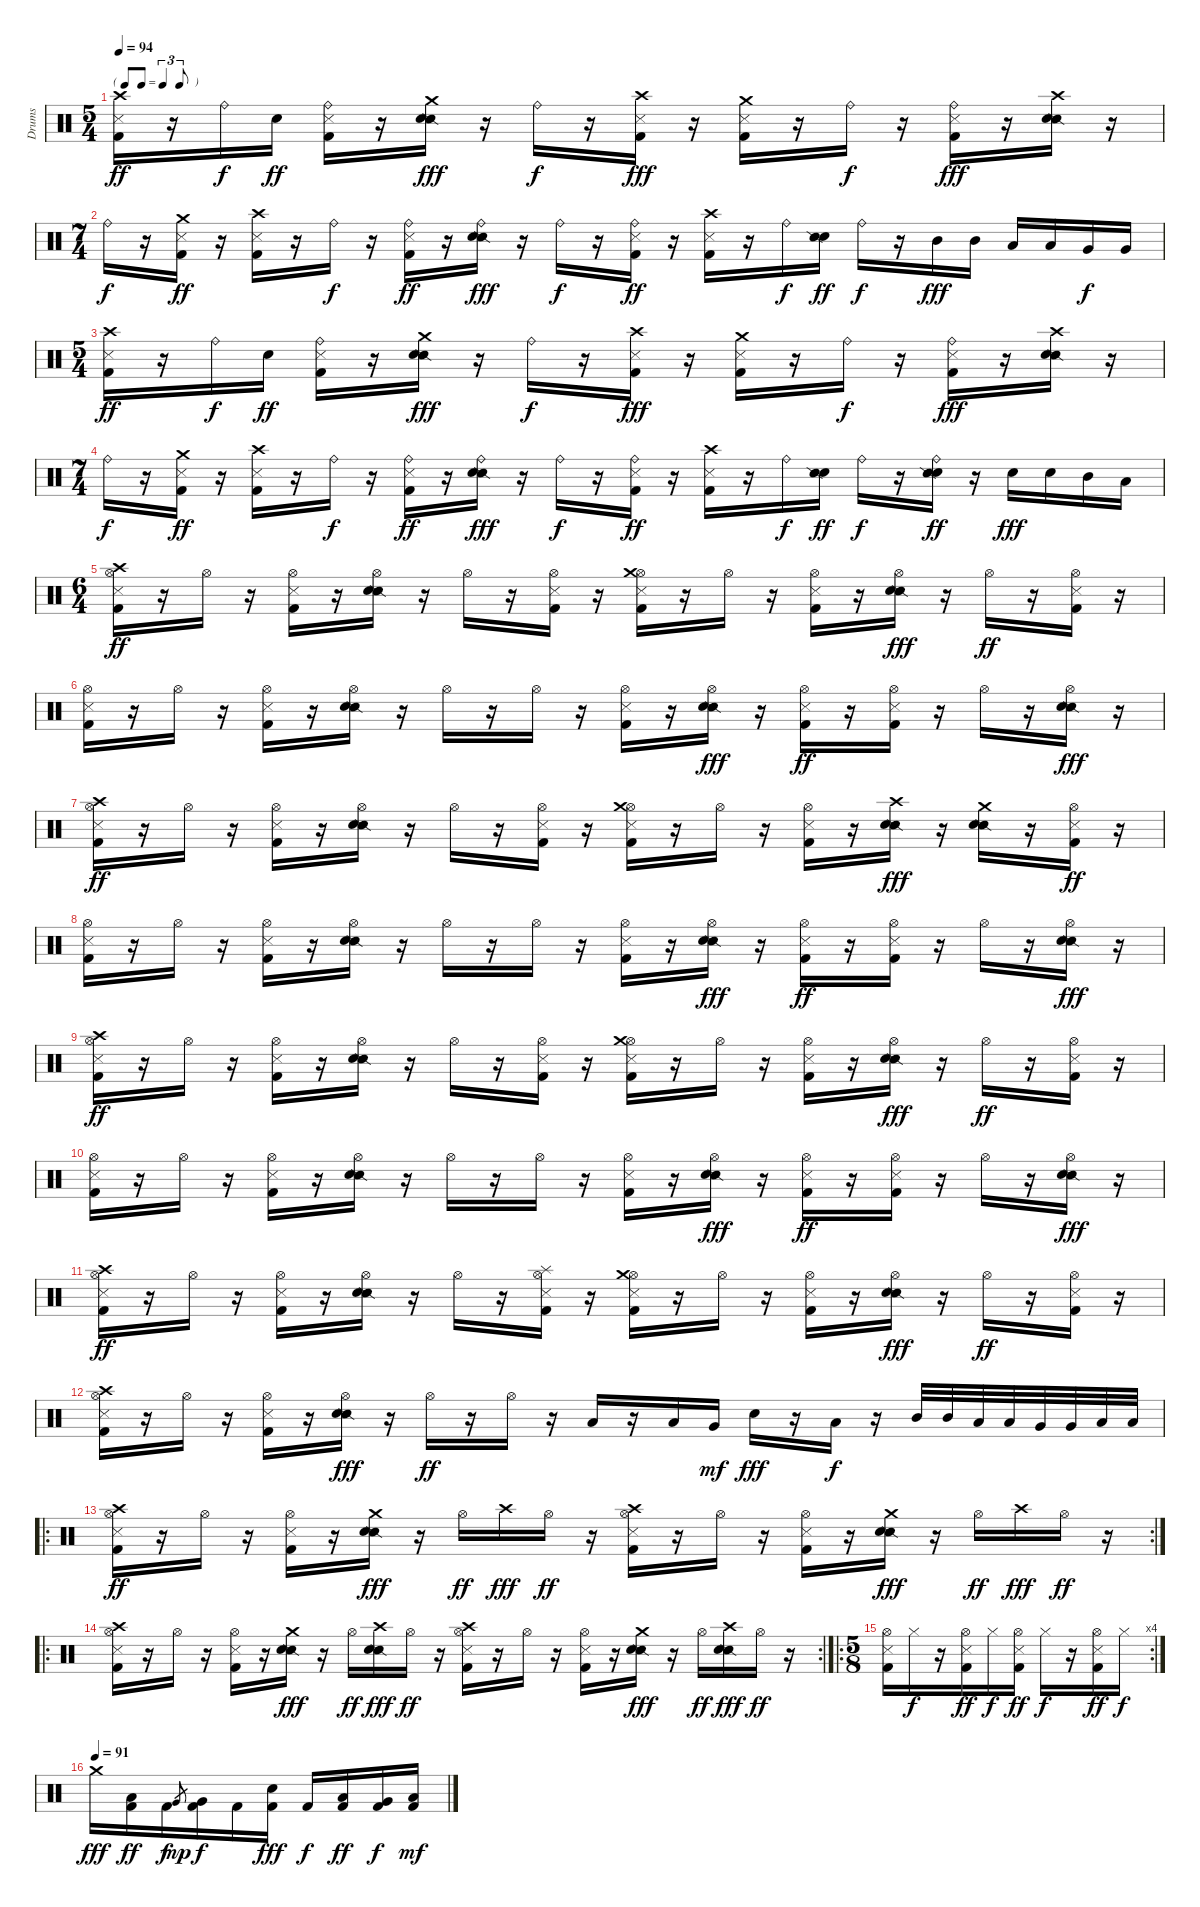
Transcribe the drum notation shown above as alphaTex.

\track ("Drums" "Drums") {instrument percussion}
\staff {score}
\articulation defaults
\ts (5 4)
\tf triplet8th
\tempo 94
\clef neutral
\ks c
("Crash high (hit)" "Metronome (hit)" "Kick (hit) 2").16{dy ff} r.16 "Ride (bell)".16{dy f} "Electric Snare (hit)".16{dy ff} ("Ride (bell)" "Metronome (hit)" "Kick (hit) 2").16 r.16 ("Crash medium (hit)" "Snare (side stick) 2" "Electric Snare (hit)").16{dy fff} r.16 "Ride (bell)".16{dy f} r.16 ("Crash high (hit)" "Metronome (hit)" "Kick (hit) 2").16{dy fff} r.16 ("Crash medium (hit)" "Metronome (hit)" "Kick (hit) 2").16 r.16 "Ride (bell)".16{dy f} r.16 ("Ride (bell)" "Metronome (hit)" "Kick (hit) 2").16{dy fff} r.16 ("Crash high (hit)" "Snare (side stick) 2" "Electric Snare (hit)").16 r.16 |
\ts (7 4)
"Ride (bell)".16{dy f} r.16 ("Crash medium (hit)" "Metronome (hit)" "Kick (hit) 2").16{dy ff} r.16 ("Crash high (hit)" "Metronome (hit)" "Kick (hit) 2").16 r.16 "Ride (bell)".16{dy f} r.16 ("Ride (bell)" "Metronome (hit)" "Kick (hit) 2").16{dy ff} r.16 ("Ride (bell)" "Snare (side stick) 2" "Electric Snare (hit)").16{dy fff} r.16 "Ride (bell)".16{dy f} r.16 ("Ride (bell)" "Metronome (hit)" "Kick (hit) 2").16{dy ff} r.16 ("Crash high (hit)" "Metronome (hit)" "Kick (hit) 2").16 r.16 "Ride (bell)".16{dy f} ("Electric Snare (hit)" "Snare (side stick) 2").16{dy ff} "Ride (bell)".16{dy f} r.16 "Mid Tom (hit)".16{dy fff} "Mid Tom (hit)".16 "Low Tom (hit)".16 "Low Tom (hit)".16 "Very Low Tom (hit)".16{dy f} "Very Low Tom (hit)".16 |
\ts (5 4)
("Crash high (hit)" "Metronome (hit)" "Kick (hit) 2").16{dy ff} r.16 "Ride (bell)".16{dy f} "Electric Snare (hit)".16{dy ff} ("Ride (bell)" "Metronome (hit)" "Kick (hit) 2").16 r.16 ("Crash medium (hit)" "Snare (side stick) 2" "Electric Snare (hit)").16{dy fff} r.16 "Ride (bell)".16{dy f} r.16 ("Crash high (hit)" "Metronome (hit)" "Kick (hit) 2").16{dy fff} r.16 ("Crash medium (hit)" "Metronome (hit)" "Kick (hit) 2").16 r.16 "Ride (bell)".16{dy f} r.16 ("Ride (bell)" "Metronome (hit)" "Kick (hit) 2").16{dy fff} r.16 ("Crash high (hit)" "Snare (side stick) 2" "Electric Snare (hit)").16 r.16 |
\ts (7 4)
"Ride (bell)".16{dy f} r.16 ("Crash medium (hit)" "Metronome (hit)" "Kick (hit) 2").16{dy ff} r.16 ("Crash high (hit)" "Metronome (hit)" "Kick (hit) 2").16 r.16 "Ride (bell)".16{dy f} r.16 ("Ride (bell)" "Metronome (hit)" "Kick (hit) 2").16{dy ff} r.16 ("Ride (bell)" "Snare (side stick) 2" "Electric Snare (hit)").16{dy fff} r.16 "Ride (bell)".16{dy f} r.16 ("Ride (bell)" "Metronome (hit)" "Kick (hit) 2").16{dy ff} r.16 ("Crash high (hit)" "Metronome (hit)" "Kick (hit) 2").16 r.16 "Ride (bell)".16{dy f} ("Electric Snare (hit)" "Snare (side stick) 2").16{dy ff} "Ride (bell)".16{dy f} r.16 ("Ride (bell)" "Electric Snare (hit)" "Snare (side stick) 2").16{dy ff} r.16 "Electric Snare (hit)".16{dy fff} "Electric Snare (hit)".16 "Mid Tom (hit)".16 "Low Tom (hit)".16 |
\ts (6 4)
("Hi-Hat (open)" "Crash high (hit)" "Metronome (hit)" "Kick (hit) 2").16{dy ff} r.16 "Hi-Hat (open)".16 r.16 ("Hi-Hat (open)" "Metronome (hit)" "Kick (hit) 2").16 r.16 ("Hi-Hat (open)" "Snare (side stick) 2" "Electric Snare (hit)").16 r.16 "Hi-Hat (open)".16 r.16 ("Hi-Hat (open)" "Metronome (hit)" "Kick (hit) 2").16 r.16 ("Hi-Hat (open)" "Crash medium (hit)" "Metronome (hit)" "Kick (hit) 2").16 r.16 "Hi-Hat (open)".16 r.16 ("Hi-Hat (open)" "Metronome (hit)" "Kick (hit) 2").16 r.16 ("Hi-Hat (open)" "Snare (side stick) 2" "Electric Snare (hit)").16{dy fff} r.16 "Hi-Hat (open)".16{dy ff} r.16 ("Hi-Hat (open)" "Metronome (hit)" "Kick (hit) 2").16 r.16 |
("Hi-Hat (open)" "Metronome (hit)" "Kick (hit) 2").16 r.16 "Hi-Hat (open)".16 r.16 ("Hi-Hat (open)" "Metronome (hit)" "Kick (hit) 2").16 r.16 ("Hi-Hat (open)" "Snare (side stick) 2" "Electric Snare (hit)").16 r.16 "Hi-Hat (open)".16 r.16 "Hi-Hat (open)".16 r.16 ("Hi-Hat (open)" "Metronome (hit)" "Kick (hit) 2").16 r.16 ("Hi-Hat (open)" "Snare (side stick) 2" "Electric Snare (hit)").16{dy fff} r.16 ("Hi-Hat (open)" "Metronome (hit)" "Kick (hit) 2").16{dy ff} r.16 ("Hi-Hat (open)" "Metronome (hit)" "Kick (hit) 2").16 r.16 "Hi-Hat (open)".16 r.16 ("Hi-Hat (open)" "Snare (side stick) 2" "Electric Snare (hit)").16{dy fff} r.16 |
("Hi-Hat (open)" "Crash high (hit)" "Metronome (hit)" "Kick (hit) 2").16{dy ff} r.16 "Hi-Hat (open)".16 r.16 ("Hi-Hat (open)" "Metronome (hit)" "Kick (hit) 2").16 r.16 ("Hi-Hat (open)" "Snare (side stick) 2" "Electric Snare (hit)").16 r.16 "Hi-Hat (open)".16 r.16 ("Hi-Hat (open)" "Metronome (hit)" "Kick (hit) 2").16 r.16 ("Hi-Hat (open)" "Crash medium (hit)" "Metronome (hit)" "Kick (hit) 2").16 r.16 "Hi-Hat (open)".16 r.16 ("Hi-Hat (open)" "Metronome (hit)" "Kick (hit) 2").16 r.16 ("Crash high (hit)" "Snare (side stick) 2" "Electric Snare (hit)").16{dy fff} r.16 ("Crash medium (hit)" "Snare (side stick) 2" "Electric Snare (hit)").16 r.16 ("Hi-Hat (open)" "Metronome (hit)" "Kick (hit) 2").16{dy ff} r.16 |
("Hi-Hat (open)" "Metronome (hit)" "Kick (hit) 2").16 r.16 "Hi-Hat (open)".16 r.16 ("Hi-Hat (open)" "Metronome (hit)" "Kick (hit) 2").16 r.16 ("Hi-Hat (open)" "Snare (side stick) 2" "Electric Snare (hit)").16 r.16 "Hi-Hat (open)".16 r.16 "Hi-Hat (open)".16 r.16 ("Hi-Hat (open)" "Metronome (hit)" "Kick (hit) 2").16 r.16 ("Hi-Hat (open)" "Snare (side stick) 2" "Electric Snare (hit)").16{dy fff} r.16 ("Hi-Hat (open)" "Metronome (hit)" "Kick (hit) 2").16{dy ff} r.16 ("Hi-Hat (open)" "Metronome (hit)" "Kick (hit) 2").16 r.16 "Hi-Hat (open)".16 r.16 ("Hi-Hat (open)" "Snare (side stick) 2" "Electric Snare (hit)").16{dy fff} r.16 |
("Hi-Hat (open)" "Crash high (hit)" "Metronome (hit)" "Kick (hit) 2").16{dy ff} r.16 "Hi-Hat (open)".16 r.16 ("Hi-Hat (open)" "Metronome (hit)" "Kick (hit) 2").16 r.16 ("Hi-Hat (open)" "Snare (side stick) 2" "Electric Snare (hit)").16 r.16 "Hi-Hat (open)".16 r.16 ("Hi-Hat (open)" "Metronome (hit)" "Kick (hit) 2").16 r.16 ("Hi-Hat (open)" "Crash medium (hit)" "Metronome (hit)" "Kick (hit) 2").16 r.16 "Hi-Hat (open)".16 r.16 ("Hi-Hat (open)" "Metronome (hit)" "Kick (hit) 2").16 r.16 ("Hi-Hat (open)" "Snare (side stick) 2" "Electric Snare (hit)").16{dy fff} r.16 "Hi-Hat (open)".16{dy ff} r.16 ("Hi-Hat (open)" "Metronome (hit)" "Kick (hit) 2").16 r.16 |
("Hi-Hat (open)" "Metronome (hit)" "Kick (hit) 2").16 r.16 "Hi-Hat (open)".16 r.16 ("Hi-Hat (open)" "Metronome (hit)" "Kick (hit) 2").16 r.16 ("Hi-Hat (open)" "Snare (side stick) 2" "Electric Snare (hit)").16 r.16 "Hi-Hat (open)".16 r.16 "Hi-Hat (open)".16 r.16 ("Hi-Hat (open)" "Metronome (hit)" "Kick (hit) 2").16 r.16 ("Hi-Hat (open)" "Snare (side stick) 2" "Electric Snare (hit)").16{dy fff} r.16 ("Hi-Hat (open)" "Metronome (hit)" "Kick (hit) 2").16{dy ff} r.16 ("Hi-Hat (open)" "Metronome (hit)" "Kick (hit) 2").16 r.16 "Hi-Hat (open)".16 r.16 ("Hi-Hat (open)" "Snare (side stick) 2" "Electric Snare (hit)").16{dy fff} r.16 |
("Hi-Hat (open)" "Crash high (hit)" "Metronome (hit)" "Kick (hit) 2").16{dy ff} r.16 "Hi-Hat (open)".16 r.16 ("Hi-Hat (open)" "Metronome (hit)" "Kick (hit) 2").16 r.16 ("Hi-Hat (open)" "Snare (side stick) 2" "Electric Snare (hit)").16 r.16 "Hi-Hat (open)".16 r.16 ("Hi-Hat (open)" "Splash (hit)" "Metronome (hit)" "Kick (hit) 2").16 r.16 ("Hi-Hat (open)" "Crash medium (hit)" "Metronome (hit)" "Kick (hit) 2").16 r.16 "Hi-Hat (open)".16 r.16 ("Hi-Hat (open)" "Metronome (hit)" "Kick (hit) 2").16 r.16 ("Hi-Hat (open)" "Snare (side stick) 2" "Electric Snare (hit)").16{dy fff} r.16 "Hi-Hat (open)".16{dy ff} r.16 ("Hi-Hat (open)" "Metronome (hit)" "Kick (hit) 2").16 r.16 |
("Hi-Hat (open)" "Crash high (hit)" "Metronome (hit)" "Kick (hit) 2").16 r.16 "Hi-Hat (open)".16 r.16 ("Hi-Hat (open)" "Metronome (hit)" "Kick (hit) 2").16 r.16 ("Hi-Hat (open)" "Snare (side stick) 2" "Electric Snare (hit)").16{dy fff} r.16 "Hi-Hat (open)".16{dy ff} r.16 "Hi-Hat (open)".16 r.16 "Low Tom (hit)".16 r.16 "Low Tom (hit)".16 "Very Low Tom (hit)".16{dy mf} "Electric Snare (hit)".16{dy fff} r.16 "Low Floor Tom (hit)".16{dy f} r.16 "Mid Tom (hit)".32 "Mid Tom (hit)".32 "Low Tom (hit)".32 "Low Tom (hit)".32 "Very Low Tom (hit)".32 "Very Low Tom (hit)".32 "Low Floor Tom (hit)".32 "Low Floor Tom (hit)".32 |
\ro
\rc 2
("Hi-Hat (open)" "Crash high (hit)" "Metronome (hit)" "Kick (hit) 2").16{dy ff} r.16 "Hi-Hat (open)".16 r.16 ("Hi-Hat (open)" "Metronome (hit)" "Kick (hit) 2").16 r.16 ("Crash medium (hit)" "Snare (side stick) 2" "Electric Snare (hit)").16{dy fff} r.16 "Hi-Hat (open)".16{dy ff} "Crash high (hit)".16{dy fff} "Hi-Hat (open)".16{dy ff} r.16 ("Hi-Hat (open)" "Crash high (hit)" "Metronome (hit)" "Kick (hit) 2").16 r.16 "Hi-Hat (open)".16 r.16 ("Hi-Hat (open)" "Metronome (hit)" "Kick (hit) 2").16 r.16 ("Crash medium (hit)" "Snare (side stick) 2" "Electric Snare (hit)").16{dy fff} r.16 "Hi-Hat (open)".16{dy ff} "Crash high (hit)".16{dy fff} "Hi-Hat (open)".16{dy ff} r.16 |
\ro
\rc 2
("Hi-Hat (open)" "Crash high (hit)" "Metronome (hit)" "Kick (hit) 2").16 r.16 "Hi-Hat (open)".16 r.16 ("Hi-Hat (open)" "Metronome (hit)" "Kick (hit) 2").16 r.16 ("Crash medium (hit)" "Snare (side stick) 2" "Electric Snare (hit)").16{dy fff} r.16 "Hi-Hat (open)".16{dy ff} ("Crash high (hit)" "Snare (side stick) 2" "Electric Snare (hit)").16{dy fff} "Hi-Hat (open)".16{dy ff} r.16 ("Hi-Hat (open)" "Crash high (hit)" "Metronome (hit)" "Kick (hit) 2").16 r.16 "Hi-Hat (open)".16 r.16 ("Hi-Hat (open)" "Metronome (hit)" "Kick (hit) 2").16 r.16 ("Crash medium (hit)" "Snare (side stick) 2" "Electric Snare (hit)").16{dy fff} r.16 "Hi-Hat (open)".16{dy ff} ("Crash high (hit)" "Snare (side stick) 2" "Electric Snare (hit)").16{dy fff} "Hi-Hat (open)".16{dy ff} r.16 |
\ro
\rc 4
\ts (5 8)
("Hi-Hat (open)" "Metronome (hit)" "Kick (hit) 2").16 "Hi-Hat (closed)".16{dy f} r.16 ("Hi-Hat (open)" "Metronome (hit)" "Kick (hit) 2").16{dy ff} "Hi-Hat (closed)".16{dy f} ("Hi-Hat (open)" "Metronome (hit)" "Kick (hit) 2").16{dy ff} "Hi-Hat (closed)".16{dy f} r.16 ("Hi-Hat (open)" "Metronome (hit)" "Kick (hit) 2").16{dy ff} "Hi-Hat (closed)".16{dy f} |
\tempo (91)
"Crash medium (hit)".16{dy fff} ("Low Tom (hit)" "Kick (hit) 2").16{dy ff} "Kick (hit) 2".16{dy f} "Very Low Tom (hit)".8{gr dy mp} ("Very Low Tom (hit)" "Kick (hit) 2").16{dy f} "Kick (hit) 2".16 ("Electric Snare (hit)" "Kick (hit) 2").16{dy fff} "Kick (hit) 2".16{dy f} ("Low Tom (hit)" "Kick (hit) 2").16{dy ff} ("Very Low Tom (hit)" "Kick (hit) 2").16{dy f} ("Low Floor Tom (hit)" "Kick (hit) 2").16{dy mf}
